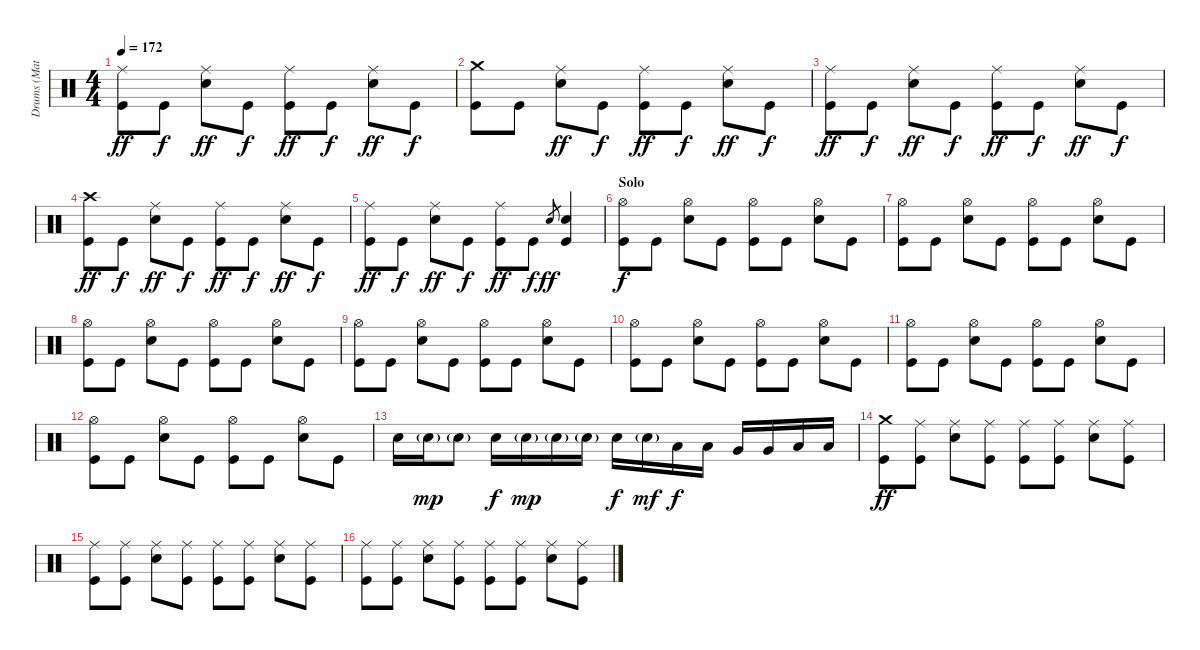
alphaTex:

\track ("Drums (Matt)" "Drums (Mat") {instrument percussion}
\staff {score}
\articulation defaults
\ts (4 4)
\tempo 172
\clef neutral
\ks c
("Ride (middle)" "Kick (hit)").8{dy ff} "Kick (hit)".8{dy f} ("Ride (middle)" "Electric Snare (hit)").8{dy ff} "Kick (hit)".8{dy f} ("Ride (middle)" "Kick (hit)").8{dy ff} "Kick (hit)".8{dy f} ("Ride (middle)" "Electric Snare (hit)").8{dy ff} "Kick (hit)".8{dy f} |
("Crash medium (hit)" "Kick (hit)").8 "Kick (hit)".8 ("Ride (middle)" "Electric Snare (hit)").8{dy ff} "Kick (hit)".8{dy f} ("Ride (middle)" "Kick (hit)").8{dy ff} "Kick (hit)".8{dy f} ("Ride (middle)" "Electric Snare (hit)").8{dy ff} "Kick (hit)".8{dy f} |
("Ride (middle)" "Kick (hit)").8{dy ff} "Kick (hit)".8{dy f} ("Ride (middle)" "Electric Snare (hit)").8{dy ff} "Kick (hit)".8{dy f} ("Ride (middle)" "Kick (hit)").8{dy ff} "Kick (hit)".8{dy f} ("Ride (middle)" "Electric Snare (hit)").8{dy ff} "Kick (hit)".8{dy f} |
("Crash high (hit)" "Kick (hit)").8{dy ff} "Kick (hit)".8{dy f} ("Ride (middle)" "Electric Snare (hit)").8{dy ff} "Kick (hit)".8{dy f} ("Ride (middle)" "Kick (hit)").8{dy ff} "Kick (hit)".8{dy f} ("Ride (middle)" "Electric Snare (hit)").8{dy ff} "Kick (hit)".8{dy f} |
("Ride (middle)" "Kick (hit)").8{dy ff} "Kick (hit)".8{dy f} ("Ride (middle)" "Electric Snare (hit)").8{dy ff} "Kick (hit)".8{dy f} ("Ride (middle)" "Kick (hit)").8{dy ff} "Kick (hit)".8{dy f} "Electric Snare (hit)".8{gr dy ff} ("Electric Snare (hit)" "Kick (hit)").4 |
\section ("" "Solo")
("Hi-Hat (open)" "Kick (hit)").8{dy f} "Kick (hit)".8 ("Hi-Hat (open)" "Electric Snare (hit)").8 "Kick (hit)".8 ("Hi-Hat (open)" "Kick (hit)").8 "Kick (hit)".8 ("Hi-Hat (open)" "Electric Snare (hit)").8 "Kick (hit)".8 |
("Hi-Hat (open)" "Kick (hit)").8 "Kick (hit)".8 ("Hi-Hat (open)" "Electric Snare (hit)").8 "Kick (hit)".8 ("Hi-Hat (open)" "Kick (hit)").8 "Kick (hit)".8 ("Hi-Hat (open)" "Electric Snare (hit)").8 "Kick (hit)".8 |
("Hi-Hat (open)" "Kick (hit)").8 "Kick (hit)".8 ("Hi-Hat (open)" "Electric Snare (hit)").8 "Kick (hit)".8 ("Hi-Hat (open)" "Kick (hit)").8 "Kick (hit)".8 ("Hi-Hat (open)" "Electric Snare (hit)").8 "Kick (hit)".8 |
("Hi-Hat (open)" "Kick (hit)").8 "Kick (hit)".8 ("Hi-Hat (open)" "Electric Snare (hit)").8 "Kick (hit)".8 ("Hi-Hat (open)" "Kick (hit)").8 "Kick (hit)".8 ("Hi-Hat (open)" "Electric Snare (hit)").8 "Kick (hit)".8 |
("Hi-Hat (open)" "Kick (hit)").8 "Kick (hit)".8 ("Hi-Hat (open)" "Electric Snare (hit)").8 "Kick (hit)".8 ("Hi-Hat (open)" "Kick (hit)").8 "Kick (hit)".8 ("Hi-Hat (open)" "Electric Snare (hit)").8 "Kick (hit)".8 |
("Hi-Hat (open)" "Kick (hit)").8 "Kick (hit)".8 ("Hi-Hat (open)" "Electric Snare (hit)").8 "Kick (hit)".8 ("Hi-Hat (open)" "Kick (hit)").8 "Kick (hit)".8 ("Hi-Hat (open)" "Electric Snare (hit)").8 "Kick (hit)".8 |
("Hi-Hat (open)" "Kick (hit)").8 "Kick (hit)".8 ("Hi-Hat (open)" "Electric Snare (hit)").8 "Kick (hit)".8 ("Hi-Hat (open)" "Kick (hit)").8 "Kick (hit)".8 ("Hi-Hat (open)" "Electric Snare (hit)").8 "Kick (hit)".8 |
"Electric Snare (hit)".16 "Electric Snare (hit)"{g}.16{dy mp} "Electric Snare (hit)"{g}.8 "Electric Snare (hit)".16{dy f} "Electric Snare (hit)"{g}.16{dy mp} "Electric Snare (hit)"{g}.16 "Electric Snare (hit)"{g}.16 "Electric Snare (hit)".16{dy f} "Electric Snare (hit)"{g}.16{dy mf} "Low Tom (hit)".16{dy f} "Low Tom (hit)".16 "Very Low Tom (hit)".16 "Very Low Tom (hit)".16 "Low Floor Tom (hit)".16 "Low Floor Tom (hit)".16 |
("Crash medium (hit)" "Kick (hit)").8{dy ff} ("Ride (middle)" "Kick (hit)").8 ("Ride (middle)" "Electric Snare (hit)").8 ("Ride (middle)" "Kick (hit)").8 ("Ride (middle)" "Kick (hit)").8 ("Ride (middle)" "Kick (hit)").8 ("Ride (middle)" "Electric Snare (hit)").8 ("Ride (middle)" "Kick (hit)").8 |
("Ride (middle)" "Kick (hit)").8 ("Ride (middle)" "Kick (hit)").8 ("Ride (middle)" "Electric Snare (hit)").8 ("Ride (middle)" "Kick (hit)").8 ("Ride (middle)" "Kick (hit)").8 ("Ride (middle)" "Kick (hit)").8 ("Ride (middle)" "Electric Snare (hit)").8 ("Ride (middle)" "Kick (hit)").8 |
("Ride (middle)" "Kick (hit)").8 ("Ride (middle)" "Kick (hit)").8 ("Ride (middle)" "Electric Snare (hit)").8 ("Ride (middle)" "Kick (hit)").8 ("Ride (middle)" "Kick (hit)").8 ("Ride (middle)" "Kick (hit)").8 ("Ride (middle)" "Electric Snare (hit)").8 ("Ride (middle)" "Kick (hit)").8
